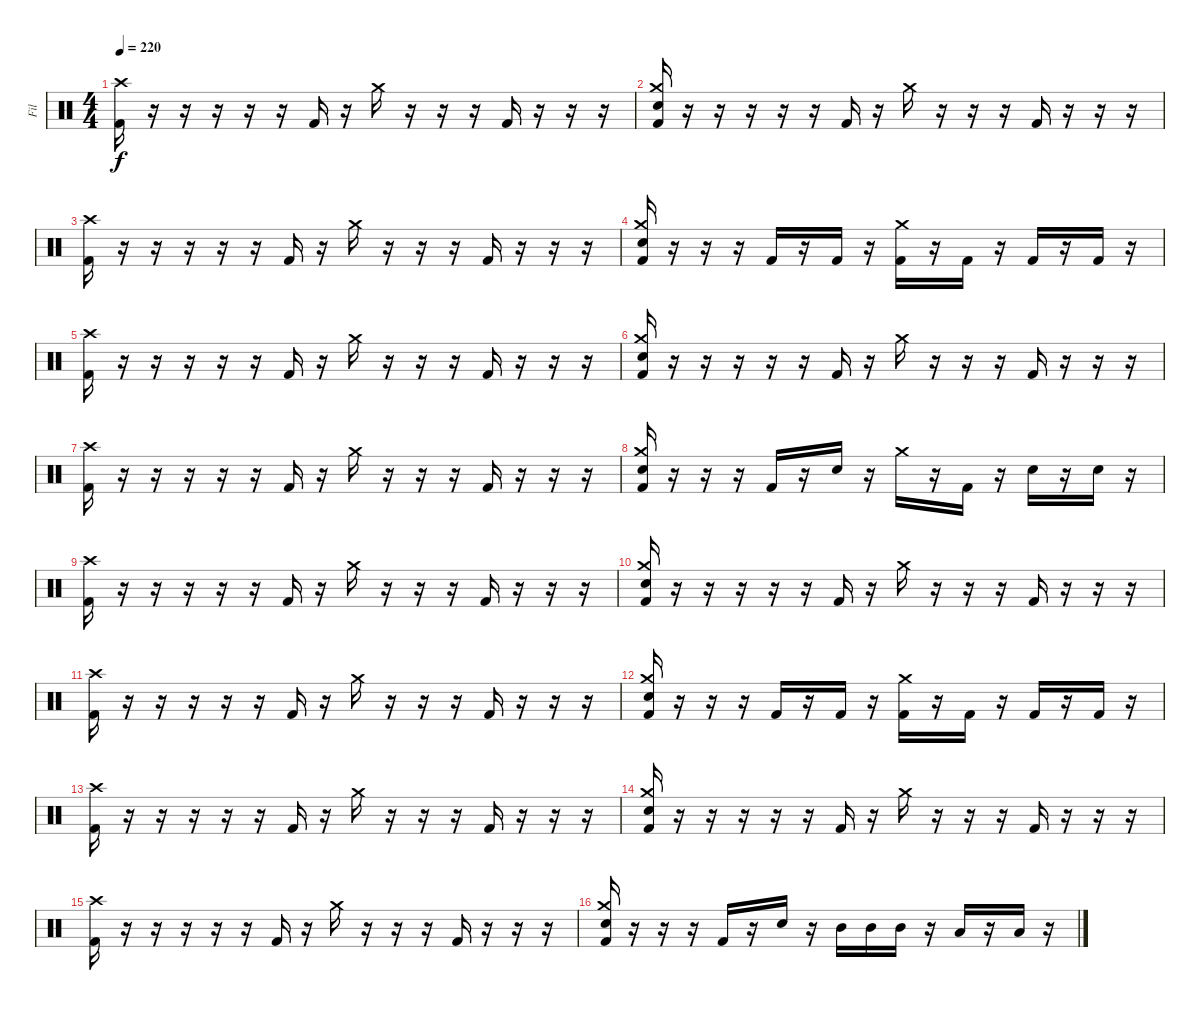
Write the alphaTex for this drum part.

\track ("Fil" "Fil") {instrument percussion}
\staff {score}
\articulation defaults
\ts (4 4)
\tempo 220
\clef neutral
\ks c
("Crash high (hit)" "Kick (hit) 2").16{dy f} r.16 r.16 r.16 r.16 r.16 "Kick (hit) 2".16 r.16 "Crash medium (hit)".16 r.16 r.16 r.16 "Kick (hit) 2".16 r.16 r.16 r.16 |
("Crash medium (hit)" "Electric Snare (hit)" "Kick (hit) 2").16 r.16 r.16 r.16 r.16 r.16 "Kick (hit) 2".16 r.16 "Crash medium (hit)".16 r.16 r.16 r.16 "Kick (hit) 2".16 r.16 r.16 r.16 |
("Crash high (hit)" "Kick (hit) 2").16 r.16 r.16 r.16 r.16 r.16 "Kick (hit) 2".16 r.16 "Crash medium (hit)".16 r.16 r.16 r.16 "Kick (hit) 2".16 r.16 r.16 r.16 |
("Crash medium (hit)" "Electric Snare (hit)" "Kick (hit) 2").16 r.16 r.16 r.16 "Kick (hit) 2".16 r.16 "Kick (hit) 2".16 r.16 ("Crash medium (hit)" "Kick (hit) 2").16 r.16 "Kick (hit) 2".16 r.16 "Kick (hit) 2".16 r.16 "Kick (hit) 2".16 r.16 |
("Crash high (hit)" "Kick (hit) 2").16 r.16 r.16 r.16 r.16 r.16 "Kick (hit) 2".16 r.16 "Crash medium (hit)".16 r.16 r.16 r.16 "Kick (hit) 2".16 r.16 r.16 r.16 |
("Crash medium (hit)" "Electric Snare (hit)" "Kick (hit) 2").16 r.16 r.16 r.16 r.16 r.16 "Kick (hit) 2".16 r.16 "Crash medium (hit)".16 r.16 r.16 r.16 "Kick (hit) 2".16 r.16 r.16 r.16 |
("Crash high (hit)" "Kick (hit) 2").16 r.16 r.16 r.16 r.16 r.16 "Kick (hit) 2".16 r.16 "Crash medium (hit)".16 r.16 r.16 r.16 "Kick (hit) 2".16 r.16 r.16 r.16 |
("Crash medium (hit)" "Electric Snare (hit)" "Kick (hit) 2").16 r.16 r.16 r.16 "Kick (hit) 2".16 r.16 "Electric Snare (hit)".16 r.16 "Crash medium (hit)".16 r.16 "Kick (hit) 2".16 r.16 "Electric Snare (hit)".16 r.16 "Electric Snare (hit)".16 r.16 |
("Crash high (hit)" "Kick (hit) 2").16 r.16 r.16 r.16 r.16 r.16 "Kick (hit) 2".16 r.16 "Crash medium (hit)".16 r.16 r.16 r.16 "Kick (hit) 2".16 r.16 r.16 r.16 |
("Crash medium (hit)" "Electric Snare (hit)" "Kick (hit) 2").16 r.16 r.16 r.16 r.16 r.16 "Kick (hit) 2".16 r.16 "Crash medium (hit)".16 r.16 r.16 r.16 "Kick (hit) 2".16 r.16 r.16 r.16 |
("Crash high (hit)" "Kick (hit) 2").16 r.16 r.16 r.16 r.16 r.16 "Kick (hit) 2".16 r.16 "Crash medium (hit)".16 r.16 r.16 r.16 "Kick (hit) 2".16 r.16 r.16 r.16 |
("Crash medium (hit)" "Electric Snare (hit)" "Kick (hit) 2").16 r.16 r.16 r.16 "Kick (hit) 2".16 r.16 "Kick (hit) 2".16 r.16 ("Crash medium (hit)" "Kick (hit) 2").16 r.16 "Kick (hit) 2".16 r.16 "Kick (hit) 2".16 r.16 "Kick (hit) 2".16 r.16 |
("Crash high (hit)" "Kick (hit) 2").16 r.16 r.16 r.16 r.16 r.16 "Kick (hit) 2".16 r.16 "Crash medium (hit)".16 r.16 r.16 r.16 "Kick (hit) 2".16 r.16 r.16 r.16 |
("Crash medium (hit)" "Electric Snare (hit)" "Kick (hit) 2").16 r.16 r.16 r.16 r.16 r.16 "Kick (hit) 2".16 r.16 "Crash medium (hit)".16 r.16 r.16 r.16 "Kick (hit) 2".16 r.16 r.16 r.16 |
("Crash high (hit)" "Kick (hit) 2").16 r.16 r.16 r.16 r.16 r.16 "Kick (hit) 2".16 r.16 "Crash medium (hit)".16 r.16 r.16 r.16 "Kick (hit) 2".16 r.16 r.16 r.16 |
("Crash medium (hit)" "Electric Snare (hit)" "Kick (hit) 2").16 r.16 r.16 r.16 "Kick (hit) 2".16 r.16 "Electric Snare (hit)".16 r.16 "Mid Tom (hit)".16 "Mid Tom (hit)".16 "Mid Tom (hit)".16 r.16 "Low Tom (hit)".16 r.16 "Low Tom (hit)".16 r.16
